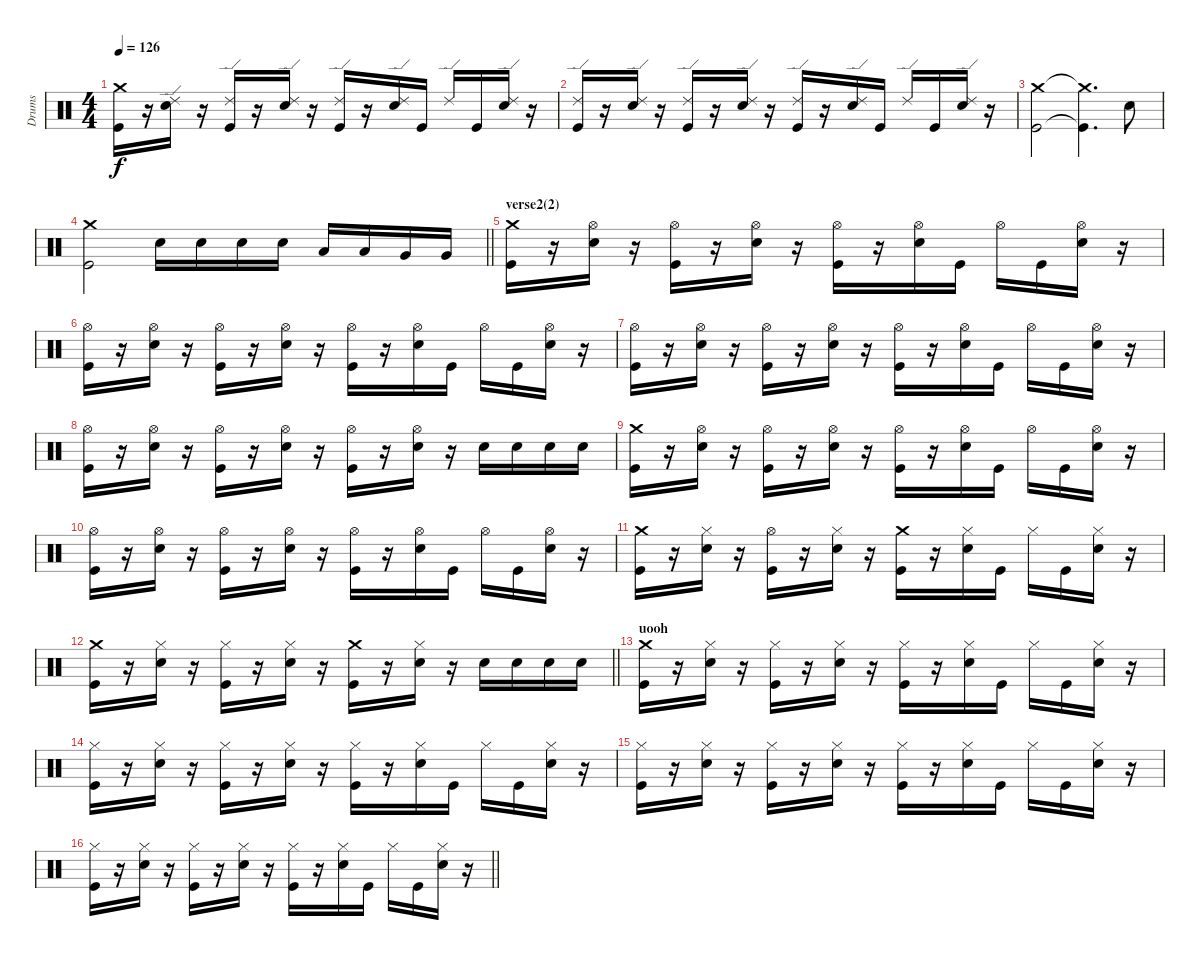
\track ("Drums" "Drums") {instrument percussion}
\staff {score}
\articulation defaults
\ts (4 4)
\tempo 126
\clef neutral
\ks c
("Crash medium (hit)" "Kick (hit)").16{dy f} r.16 ("Ride (edge) 2" "Snare (hit) 2").16 r.16 ("Ride (edge) 2" "Kick (hit)").16 r.16 ("Ride (edge) 2" "Snare (hit) 2").16 r.16 ("Ride (edge) 2" "Kick (hit)").16 r.16 ("Ride (edge) 2" "Snare (hit) 2").16 "Kick (hit)".16 "Ride (edge) 2".16 "Kick (hit)".16 ("Ride (edge) 2" "Snare (hit) 2").16 r.16 |
("Ride (edge) 2" "Kick (hit)").16 r.16 ("Ride (edge) 2" "Snare (hit) 2").16 r.16 ("Ride (edge) 2" "Kick (hit)").16 r.16 ("Ride (edge) 2" "Snare (hit) 2").16 r.16 ("Ride (edge) 2" "Kick (hit)").16 r.16 ("Ride (edge) 2" "Snare (hit) 2").16 "Kick (hit)".16 "Ride (edge) 2".16 "Kick (hit)".16 ("Ride (edge) 2" "Snare (hit) 2").16 r.16 |
("Crash medium (hit)" "Kick (hit)").2 ("Crash medium (hit)"{t} "Kick (hit)"{t}).4{d} "Snare (hit) 2".8 |
\barLineRight lightlight
("Crash medium (hit)" "Kick (hit)").2 "Snare (hit) 2".16 "Snare (hit) 2".16 "Snare (hit) 2".16 "Snare (hit) 2".16 "Low Tom (hit)".16 "Low Tom (hit)".16 "Very Low Tom (hit)".16 "Very Low Tom (hit)".16 |
\section ("" "verse2(2)")
("Crash medium (hit)" "Kick (hit)").16 r.16 ("Hi-Hat (open)" "Snare (hit) 2").16 r.16 ("Hi-Hat (open)" "Kick (hit)").16 r.16 ("Hi-Hat (open)" "Snare (hit) 2").16 r.16 ("Hi-Hat (open)" "Kick (hit)").16 r.16 ("Hi-Hat (open)" "Snare (hit) 2").16 "Kick (hit)".16 "Hi-Hat (open)".16 "Kick (hit)".16 ("Hi-Hat (open)" "Snare (hit) 2").16 r.16 |
("Hi-Hat (open)" "Kick (hit)").16 r.16 ("Hi-Hat (open)" "Snare (hit) 2").16 r.16 ("Hi-Hat (open)" "Kick (hit)").16 r.16 ("Hi-Hat (open)" "Snare (hit) 2").16 r.16 ("Hi-Hat (open)" "Kick (hit)").16 r.16 ("Hi-Hat (open)" "Snare (hit) 2").16 "Kick (hit)".16 "Hi-Hat (open)".16 "Kick (hit)".16 ("Hi-Hat (open)" "Snare (hit) 2").16 r.16 |
("Hi-Hat (open)" "Kick (hit)").16 r.16 ("Hi-Hat (open)" "Snare (hit) 2").16 r.16 ("Hi-Hat (open)" "Kick (hit)").16 r.16 ("Hi-Hat (open)" "Snare (hit) 2").16 r.16 ("Hi-Hat (open)" "Kick (hit)").16 r.16 ("Hi-Hat (open)" "Snare (hit) 2").16 "Kick (hit)".16 "Hi-Hat (open)".16 "Kick (hit)".16 ("Hi-Hat (open)" "Snare (hit) 2").16 r.16 |
("Hi-Hat (open)" "Kick (hit)").16 r.16 ("Hi-Hat (open)" "Snare (hit) 2").16 r.16 ("Hi-Hat (open)" "Kick (hit)").16 r.16 ("Hi-Hat (open)" "Snare (hit) 2").16 r.16 ("Hi-Hat (open)" "Kick (hit)").16 r.16 ("Hi-Hat (open)" "Snare (hit) 2").16 r.16 "Snare (hit) 2".16 "Snare (hit) 2".16 "Snare (hit) 2".16 "Snare (hit) 2".16 |
("Crash medium (hit)" "Kick (hit)").16 r.16 ("Hi-Hat (open)" "Snare (hit) 2").16 r.16 ("Hi-Hat (open)" "Kick (hit)").16 r.16 ("Hi-Hat (open)" "Snare (hit) 2").16 r.16 ("Hi-Hat (open)" "Kick (hit)").16 r.16 ("Hi-Hat (open)" "Snare (hit) 2").16 "Kick (hit)".16 "Hi-Hat (open)".16 "Kick (hit)".16 ("Hi-Hat (open)" "Snare (hit) 2").16 r.16 |
("Hi-Hat (open)" "Kick (hit)").16 r.16 ("Hi-Hat (open)" "Snare (hit) 2").16 r.16 ("Hi-Hat (open)" "Kick (hit)").16 r.16 ("Hi-Hat (open)" "Snare (hit) 2").16 r.16 ("Hi-Hat (open)" "Kick (hit)").16 r.16 ("Hi-Hat (open)" "Snare (hit) 2").16 "Kick (hit)".16 "Hi-Hat (open)".16 "Kick (hit)".16 ("Hi-Hat (open)" "Snare (hit) 2").16 r.16 |
("Crash medium (hit)" "Kick (hit)").16 r.16 ("Hi-Hat (closed)" "Snare (hit) 2").16 r.16 ("Hi-Hat (open)" "Kick (hit)").16 r.16 ("Hi-Hat (closed)" "Snare (hit) 2").16 r.16 ("Crash medium (hit)" "Kick (hit)").16 r.16 ("Hi-Hat (closed)" "Snare (hit) 2").16 "Kick (hit)".16 "Hi-Hat (closed)".16 "Kick (hit)".16 ("Hi-Hat (closed)" "Snare (hit) 2").16 r.16 |
\barLineRight lightlight
("Crash medium (hit)" "Kick (hit)").16 r.16 ("Hi-Hat (closed)" "Snare (hit) 2").16 r.16 ("Hi-Hat (closed)" "Kick (hit)").16 r.16 ("Hi-Hat (closed)" "Snare (hit) 2").16 r.16 ("Crash medium (hit)" "Kick (hit)").16 r.16 ("Hi-Hat (closed)" "Snare (hit) 2").16 r.16 "Snare (hit) 2".16 "Snare (hit) 2".16 "Snare (hit) 2".16 "Snare (hit) 2".16 |
\section ("" "uooh")
("Crash medium (hit)" "Kick (hit)").16 r.16 ("Hi-Hat (closed)" "Snare (hit) 2").16 r.16 ("Hi-Hat (closed)" "Kick (hit)").16 r.16 ("Hi-Hat (closed)" "Snare (hit) 2").16 r.16 ("Hi-Hat (closed)" "Kick (hit)").16 r.16 ("Hi-Hat (closed)" "Snare (hit) 2").16 "Kick (hit)".16 "Hi-Hat (closed)".16 "Kick (hit)".16 ("Hi-Hat (closed)" "Snare (hit) 2").16 r.16 |
("Hi-Hat (closed)" "Kick (hit)").16 r.16 ("Hi-Hat (closed)" "Snare (hit) 2").16 r.16 ("Hi-Hat (closed)" "Kick (hit)").16 r.16 ("Hi-Hat (closed)" "Snare (hit) 2").16 r.16 ("Hi-Hat (closed)" "Kick (hit)").16 r.16 ("Hi-Hat (closed)" "Snare (hit) 2").16 "Kick (hit)".16 "Hi-Hat (closed)".16 "Kick (hit)".16 ("Hi-Hat (closed)" "Snare (hit) 2").16 r.16 |
("Hi-Hat (closed)" "Kick (hit)").16 r.16 ("Hi-Hat (closed)" "Snare (hit) 2").16 r.16 ("Hi-Hat (closed)" "Kick (hit)").16 r.16 ("Hi-Hat (closed)" "Snare (hit) 2").16 r.16 ("Hi-Hat (closed)" "Kick (hit)").16 r.16 ("Hi-Hat (closed)" "Snare (hit) 2").16 "Kick (hit)".16 "Hi-Hat (closed)".16 "Kick (hit)".16 ("Hi-Hat (closed)" "Snare (hit) 2").16 r.16 |
\barLineRight lightlight
("Hi-Hat (closed)" "Kick (hit)").16 r.16 ("Hi-Hat (closed)" "Snare (hit) 2").16 r.16 ("Hi-Hat (closed)" "Kick (hit)").16 r.16 ("Hi-Hat (closed)" "Snare (hit) 2").16 r.16 ("Hi-Hat (closed)" "Kick (hit)").16 r.16 ("Hi-Hat (closed)" "Snare (hit) 2").16 "Kick (hit)".16 "Hi-Hat (closed)".16 "Kick (hit)".16 ("Hi-Hat (closed)" "Snare (hit) 2").16 r.16
